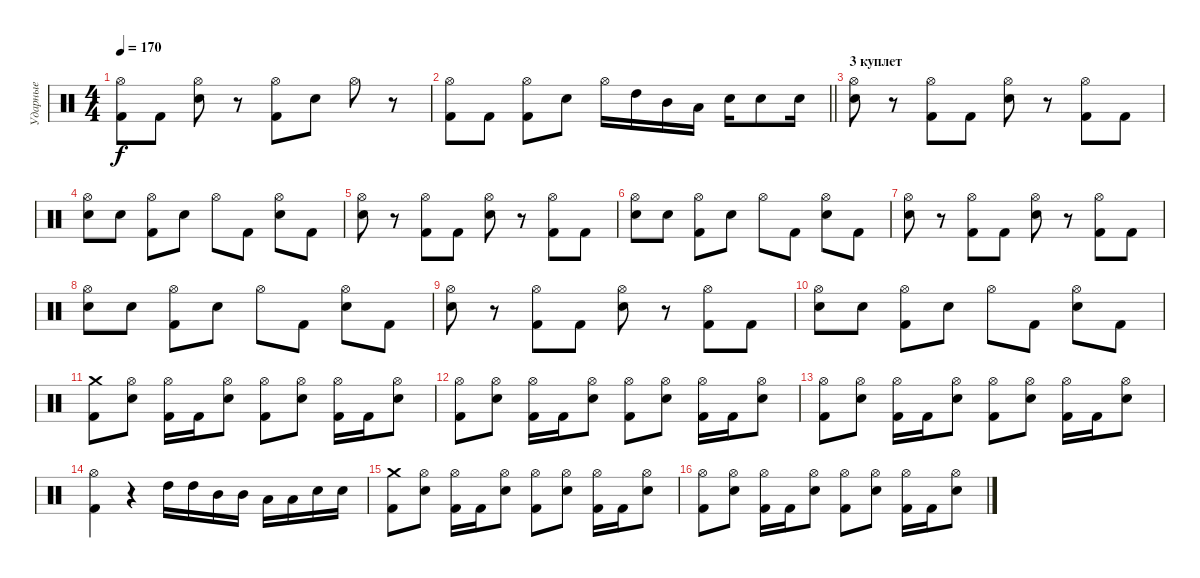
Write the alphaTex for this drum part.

\track ("Ударные" "Ударные") {instrument percussion}
\staff {score}
\articulation defaults
\ts (4 4)
\tempo 170
\clef neutral
\ks c
("Hi-Hat (open)" "Kick (hit) 2").8{dy f} "Kick (hit) 2".8 ("Hi-Hat (open)" "Snare (hit) 2").8 r.8 ("Hi-Hat (open)" "Kick (hit) 2").8 "Snare (hit) 2".8 "Hi-Hat (open)".8 r.8 |
\barLineRight lightlight
("Hi-Hat (open)" "Kick (hit) 2").8 "Kick (hit) 2".8 ("Hi-Hat (open)" "Kick (hit) 2").8 "Snare (hit) 2".8 "Hi-Hat (open)".16 "High Tom (hit)".16 "Mid Tom (hit)".16 "Low Tom (hit)".16 "Snare (hit) 2".16 "Snare (hit) 2".8 "Snare (hit) 2".16 |
\section ("" "3 куплет")
("Hi-Hat (open)" "Snare (hit) 2").8 r.8 ("Hi-Hat (open)" "Kick (hit) 2").8 "Kick (hit) 2".8 ("Hi-Hat (open)" "Snare (hit) 2").8 r.8 ("Hi-Hat (open)" "Kick (hit) 2").8 "Kick (hit) 2".8 |
("Hi-Hat (open)" "Snare (hit) 2").8 "Snare (hit) 2".8 ("Hi-Hat (open)" "Kick (hit) 2").8 "Snare (hit) 2".8 "Hi-Hat (open)".8 "Kick (hit) 2".8 ("Hi-Hat (open)" "Snare (hit) 2").8 "Kick (hit) 2".8 |
("Hi-Hat (open)" "Snare (hit) 2").8 r.8 ("Hi-Hat (open)" "Kick (hit) 2").8 "Kick (hit) 2".8 ("Hi-Hat (open)" "Snare (hit) 2").8 r.8 ("Hi-Hat (open)" "Kick (hit) 2").8 "Kick (hit) 2".8 |
("Hi-Hat (open)" "Snare (hit) 2").8 "Snare (hit) 2".8 ("Hi-Hat (open)" "Kick (hit) 2").8 "Snare (hit) 2".8 "Hi-Hat (open)".8 "Kick (hit) 2".8 ("Hi-Hat (open)" "Snare (hit) 2").8 "Kick (hit) 2".8 |
("Hi-Hat (open)" "Snare (hit) 2").8 r.8 ("Hi-Hat (open)" "Kick (hit) 2").8 "Kick (hit) 2".8 ("Hi-Hat (open)" "Snare (hit) 2").8 r.8 ("Hi-Hat (open)" "Kick (hit) 2").8 "Kick (hit) 2".8 |
("Hi-Hat (open)" "Snare (hit) 2").8 "Snare (hit) 2".8 ("Hi-Hat (open)" "Kick (hit) 2").8 "Snare (hit) 2".8 "Hi-Hat (open)".8 "Kick (hit) 2".8 ("Hi-Hat (open)" "Snare (hit) 2").8 "Kick (hit) 2".8 |
("Hi-Hat (open)" "Snare (hit) 2").8 r.8 ("Hi-Hat (open)" "Kick (hit) 2").8 "Kick (hit) 2".8 ("Hi-Hat (open)" "Snare (hit) 2").8 r.8 ("Hi-Hat (open)" "Kick (hit) 2").8 "Kick (hit) 2".8 |
("Hi-Hat (open)" "Snare (hit) 2").8 "Snare (hit) 2".8 ("Hi-Hat (open)" "Kick (hit) 2").8 "Snare (hit) 2".8 "Hi-Hat (open)".8 "Kick (hit) 2".8 ("Hi-Hat (open)" "Snare (hit) 2").8 "Kick (hit) 2".8 |
("Crash medium (hit)" "Kick (hit) 2").8 ("Hi-Hat (open)" "Snare (hit) 2").8 ("Hi-Hat (open)" "Kick (hit) 2").16 "Kick (hit) 2".16 ("Hi-Hat (open)" "Snare (hit) 2").8 ("Hi-Hat (open)" "Kick (hit) 2").8 ("Hi-Hat (open)" "Snare (hit) 2").8 ("Hi-Hat (open)" "Kick (hit) 2").16 "Kick (hit) 2".16 ("Hi-Hat (open)" "Snare (hit) 2").8 |
("Hi-Hat (open)" "Kick (hit) 2").8 ("Hi-Hat (open)" "Snare (hit) 2").8 ("Hi-Hat (open)" "Kick (hit) 2").16 "Kick (hit) 2".16 ("Hi-Hat (open)" "Snare (hit) 2").8 ("Hi-Hat (open)" "Kick (hit) 2").8 ("Hi-Hat (open)" "Snare (hit) 2").8 ("Hi-Hat (open)" "Kick (hit) 2").16 "Kick (hit) 2".16 ("Hi-Hat (open)" "Snare (hit) 2").8 |
("Hi-Hat (open)" "Kick (hit) 2").8 ("Hi-Hat (open)" "Snare (hit) 2").8 ("Hi-Hat (open)" "Kick (hit) 2").16 "Kick (hit) 2".16 ("Hi-Hat (open)" "Snare (hit) 2").8 ("Hi-Hat (open)" "Kick (hit) 2").8 ("Hi-Hat (open)" "Snare (hit) 2").8 ("Hi-Hat (open)" "Kick (hit) 2").16 "Kick (hit) 2".16 ("Hi-Hat (open)" "Snare (hit) 2").8 |
("Hi-Hat (open)" "Kick (hit) 2").4 r.4 "High Tom (hit)".16 "High Tom (hit)".16 "Mid Tom (hit)".16 "Mid Tom (hit)".16 "Low Tom (hit)".16 "Low Tom (hit)".16 "Snare (hit) 2".16 "Snare (hit) 2".16 |
("Crash medium (hit)" "Kick (hit) 2").8 ("Hi-Hat (open)" "Snare (hit) 2").8 ("Hi-Hat (open)" "Kick (hit) 2").16 "Kick (hit) 2".16 ("Hi-Hat (open)" "Snare (hit) 2").8 ("Hi-Hat (open)" "Kick (hit) 2").8 ("Hi-Hat (open)" "Snare (hit) 2").8 ("Hi-Hat (open)" "Kick (hit) 2").16 "Kick (hit) 2".16 ("Hi-Hat (open)" "Snare (hit) 2").8 |
("Hi-Hat (open)" "Kick (hit) 2").8 ("Hi-Hat (open)" "Snare (hit) 2").8 ("Hi-Hat (open)" "Kick (hit) 2").16 "Kick (hit) 2".16 ("Hi-Hat (open)" "Snare (hit) 2").8 ("Hi-Hat (open)" "Kick (hit) 2").8 ("Hi-Hat (open)" "Snare (hit) 2").8 ("Hi-Hat (open)" "Kick (hit) 2").16 "Kick (hit) 2".16 ("Hi-Hat (open)" "Snare (hit) 2").8
